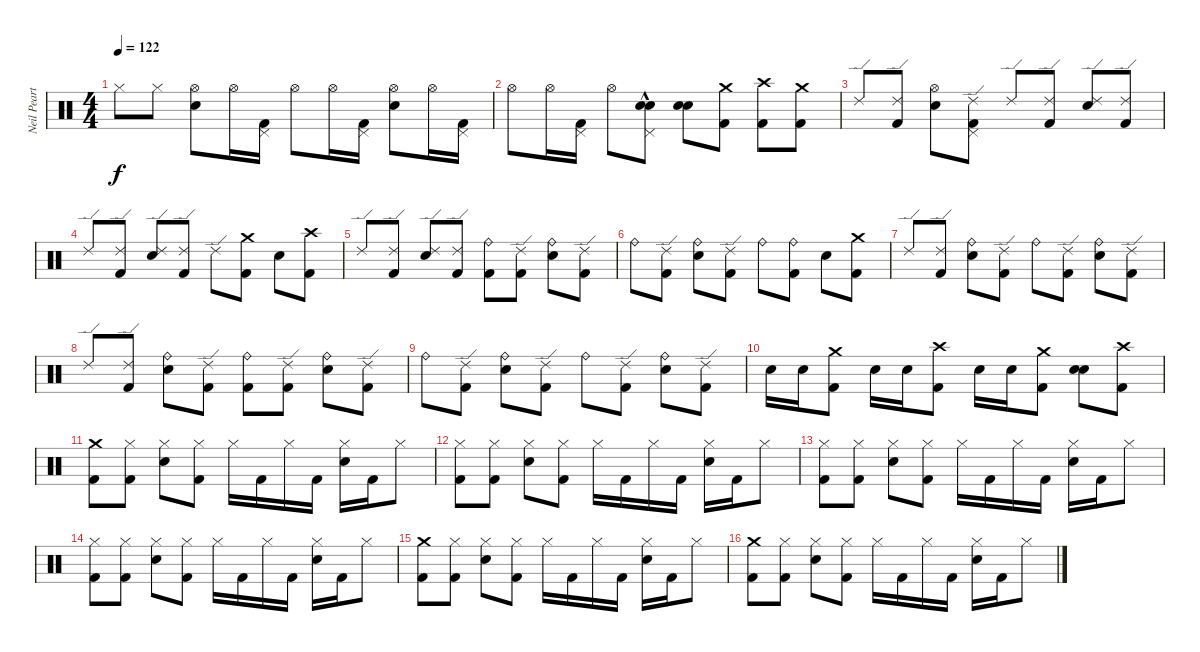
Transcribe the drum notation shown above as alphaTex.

\track ("Neil Peart" "Neil Peart") {instrument percussion}
\staff {score}
\articulation defaults
\ts (4 4)
\tempo 122
\clef neutral
\ks c "Hi-Hat (closed)".8{dy f} "Hi-Hat (closed)".8
("Snare (hit) 2" "Hi-Hat (open)").8 "Hi-Hat (open)".16 ("Pedal Hi-Hat (hit)" "Kick (hit) 2").16 "Hi-Hat (open)".8 "Hi-Hat (open)".16 ("Kick (hit) 2" "Pedal Hi-Hat (hit)").16 ("Snare (hit) 2" "Hi-Hat (open)").8 "Hi-Hat (open)".16 ("Kick (hit) 2" "Pedal Hi-Hat (hit)").16 |
"Hi-Hat (open)".8 "Hi-Hat (open)".16 ("Pedal Hi-Hat (hit)" "Kick (hit) 2").16 "Hi-Hat (open)".8 ("Snare (hit) 2" "Pedal Hi-Hat (hit)" "Snare (hit) 2"{hac}).8 ("Snare (hit) 2" "Snare (hit) 2").8 ("Crash medium (hit)" "Kick (hit) 2").8 ("Crash high (hit)" "Kick (hit) 2").8 ("Crash medium (hit)" "Kick (hit) 2").8 |
"Ride (edge) 2".8 ("Kick (hit) 2" "Ride (edge) 2").8 ("Hi-Hat (open)" "Snare (hit) 2").8 ("Ride (edge) 2" "Kick (hit) 2" "Pedal Hi-Hat (hit)").8 "Ride (edge) 2".8 ("Ride (edge) 2" "Kick (hit) 2").8 ("Snare (hit) 2" "Ride (edge) 2").8 ("Kick (hit) 2" "Ride (edge) 2").8 |
"Ride (edge) 2".8 ("Ride (edge) 2" "Kick (hit) 2").8 ("Snare (hit) 2" "Ride (edge) 2").8 ("Ride (edge) 2" "Kick (hit) 2").8 "Ride (edge) 2".8 ("Kick (hit) 2" "Crash medium (hit)").8 "Snare (hit) 2".8 ("Kick (hit) 2" "Crash high (hit)").8 |
"Ride (edge) 2".8 ("Ride (edge) 2" "Kick (hit) 2").8 ("Ride (edge) 2" "Snare (hit) 2").8 ("Kick (hit) 2" "Ride (edge) 2").8 ("Ride (bell)" "Kick (hit) 2").8 ("Ride (edge) 2" "Kick (hit) 2").8 ("Snare (hit) 2" "Ride (bell)").8 ("Kick (hit) 2" "Ride (edge) 2").8 |
"Ride (bell)".8 ("Kick (hit) 2" "Ride (edge) 2").8 ("Ride (bell)" "Snare (hit) 2").8 ("Kick (hit) 2" "Ride (edge) 2").8 "Ride (bell)".8 ("Kick (hit) 2" "Ride (bell)").8 "Snare (hit) 2".8 ("Crash medium (hit)" "Kick (hit) 2").8 |
"Ride (edge) 2".8 ("Ride (edge) 2" "Kick (hit) 2").8 ("Snare (hit) 2" "Ride (bell)").8 ("Kick (hit) 2" "Ride (edge) 2").8 "Ride (bell)".8 ("Ride (edge) 2" "Kick (hit) 2").8 ("Ride (bell)" "Snare (hit) 2").8 ("Kick (hit) 2" "Ride (edge) 2").8 |
"Ride (edge) 2".8 ("Ride (edge) 2" "Kick (hit) 2").8 ("Snare (hit) 2" "Ride (bell)").8 ("Ride (edge) 2" "Kick (hit) 2").8 ("Ride (bell)" "Kick (hit) 2").8 ("Kick (hit) 2" "Ride (edge) 2").8 ("Snare (hit) 2" "Ride (bell)").8 ("Ride (edge) 2" "Kick (hit) 2").8 |
"Ride (bell)".8 ("Ride (edge) 2" "Kick (hit) 2").8 ("Ride (bell)" "Snare (hit) 2").8 ("Kick (hit) 2" "Ride (edge) 2").8 "Ride (bell)".8 ("Kick (hit) 2" "Ride (edge) 2").8 ("Ride (bell)" "Snare (hit) 2").8 ("Ride (edge) 2" "Kick (hit) 2").8 |
"Snare (hit) 2".16 "Snare (hit) 2".16 ("Crash medium (hit)" "Kick (hit) 2").8 "Snare (hit) 2".16 "Snare (hit) 2".16 ("Kick (hit) 2" "Crash high (hit)").8 "Snare (hit) 2".16 "Snare (hit) 2".16 ("Kick (hit) 2" "Crash medium (hit)").8 ("Snare (hit) 2" "Snare (hit) 2").8 ("Crash high (hit)" "Kick (hit) 2").8 |
("Kick (hit) 2" "Crash medium (hit)").8 ("Kick (hit) 2" "Hi-Hat (closed)").8 ("Snare (hit) 2" "Hi-Hat (closed)").8 ("Hi-Hat (closed)" "Kick (hit) 2").8 "Hi-Hat (closed)".16 "Kick (hit) 2".16 "Hi-Hat (closed)".16 "Kick (hit) 2".16 ("Hi-Hat (closed)" "Snare (hit) 2").16 "Kick (hit) 2".16 "Hi-Hat (closed)".8 |
("Kick (hit) 2" "Hi-Hat (closed)").8 ("Hi-Hat (closed)" "Kick (hit) 2").8 ("Hi-Hat (closed)" "Snare (hit) 2").8 ("Kick (hit) 2" "Hi-Hat (closed)").8 "Hi-Hat (closed)".16 "Kick (hit) 2".16 "Hi-Hat (closed)".16 "Kick (hit) 2".16 ("Snare (hit) 2" "Hi-Hat (closed)").16 "Kick (hit) 2".16 "Hi-Hat (closed)".8 |
("Kick (hit) 2" "Hi-Hat (closed)").8 ("Hi-Hat (closed)" "Kick (hit) 2").8 ("Hi-Hat (closed)" "Snare (hit) 2").8 ("Kick (hit) 2" "Hi-Hat (closed)").8 "Hi-Hat (closed)".16 "Kick (hit) 2".16 "Hi-Hat (closed)".16 "Kick (hit) 2".16 ("Snare (hit) 2" "Hi-Hat (closed)").16 "Kick (hit) 2".16 "Hi-Hat (closed)".8 |
("Kick (hit) 2" "Hi-Hat (closed)").8 ("Hi-Hat (closed)" "Kick (hit) 2").8 ("Snare (hit) 2" "Hi-Hat (closed)").8 ("Hi-Hat (closed)" "Kick (hit) 2").8 "Hi-Hat (closed)".16 "Kick (hit) 2".16 "Hi-Hat (closed)".16 "Kick (hit) 2".16 ("Hi-Hat (closed)" "Snare (hit) 2").16 "Kick (hit) 2".16 "Hi-Hat (closed)".8 |
("Kick (hit) 2" "Crash medium (hit)").8 ("Kick (hit) 2" "Hi-Hat (closed)").8 ("Hi-Hat (closed)" "Snare (hit) 2").8 ("Hi-Hat (closed)" "Kick (hit) 2").8 "Hi-Hat (closed)".16 "Kick (hit) 2".16 "Hi-Hat (closed)".16 "Kick (hit) 2".16 ("Hi-Hat (closed)" "Snare (hit) 2").16 "Kick (hit) 2".16 "Hi-Hat (closed)".8 |
("Kick (hit) 2" "Crash medium (hit)").8 ("Kick (hit) 2" "Hi-Hat (closed)").8 ("Snare (hit) 2" "Hi-Hat (closed)").8 ("Kick (hit) 2" "Hi-Hat (closed)").8 "Hi-Hat (closed)".16 "Kick (hit) 2".16 "Hi-Hat (closed)".16 "Kick (hit) 2".16 ("Hi-Hat (closed)" "Snare (hit) 2").16 "Kick (hit) 2".16 "Hi-Hat (closed)".8
